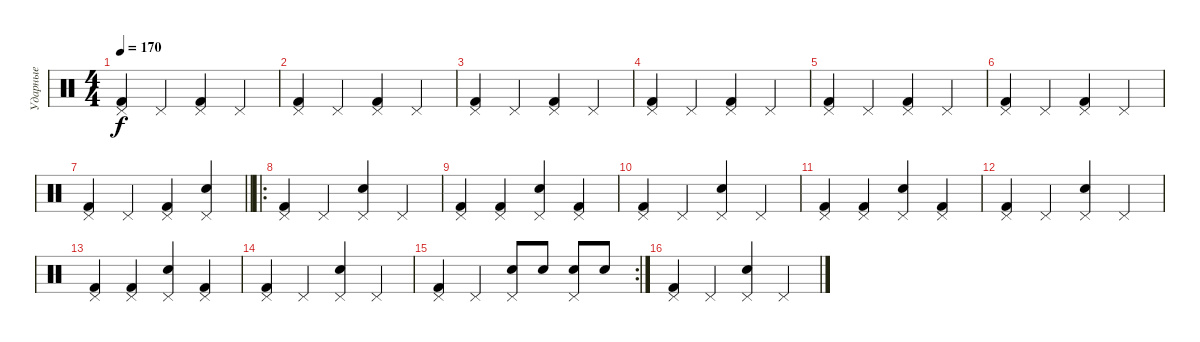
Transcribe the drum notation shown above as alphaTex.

\track ("Ударные" "Ударные") {instrument percussion}
\staff {score}
\articulation defaults
\ts (4 4)
\tempo 170
\clef neutral
\ks c
("Pedal Hi-Hat (hit)" "Kick (hit) 2").4{dy f} "Pedal Hi-Hat (hit)".4 ("Pedal Hi-Hat (hit)" "Kick (hit) 2").4 "Pedal Hi-Hat (hit)".4 |
("Pedal Hi-Hat (hit)" "Kick (hit) 2").4 "Pedal Hi-Hat (hit)".4 ("Pedal Hi-Hat (hit)" "Kick (hit) 2").4 "Pedal Hi-Hat (hit)".4 |
("Pedal Hi-Hat (hit)" "Kick (hit) 2").4 "Pedal Hi-Hat (hit)".4 ("Pedal Hi-Hat (hit)" "Kick (hit) 2").4 "Pedal Hi-Hat (hit)".4 |
("Pedal Hi-Hat (hit)" "Kick (hit) 2").4 "Pedal Hi-Hat (hit)".4 ("Pedal Hi-Hat (hit)" "Kick (hit) 2").4 "Pedal Hi-Hat (hit)".4 |
("Pedal Hi-Hat (hit)" "Kick (hit) 2").4 "Pedal Hi-Hat (hit)".4 ("Pedal Hi-Hat (hit)" "Kick (hit) 2").4 "Pedal Hi-Hat (hit)".4 |
("Pedal Hi-Hat (hit)" "Kick (hit) 2").4 "Pedal Hi-Hat (hit)".4 ("Pedal Hi-Hat (hit)" "Kick (hit) 2").4 "Pedal Hi-Hat (hit)".4 |
\barLineRight lightlight
("Pedal Hi-Hat (hit)" "Kick (hit) 2").4 "Pedal Hi-Hat (hit)".4 ("Pedal Hi-Hat (hit)" "Kick (hit) 2").4 ("Pedal Hi-Hat (hit)" "Snare (hit) 2").4 |
\ro
("Pedal Hi-Hat (hit)" "Kick (hit) 2").4 "Pedal Hi-Hat (hit)".4 ("Pedal Hi-Hat (hit)" "Snare (hit) 2").4 "Pedal Hi-Hat (hit)".4 |
("Pedal Hi-Hat (hit)" "Kick (hit) 2").4 ("Pedal Hi-Hat (hit)" "Kick (hit) 2").4 ("Pedal Hi-Hat (hit)" "Snare (hit) 2").4 ("Pedal Hi-Hat (hit)" "Kick (hit) 2").4 |
("Pedal Hi-Hat (hit)" "Kick (hit) 2").4 "Pedal Hi-Hat (hit)".4 ("Pedal Hi-Hat (hit)" "Snare (hit) 2").4 "Pedal Hi-Hat (hit)".4 |
("Pedal Hi-Hat (hit)" "Kick (hit) 2").4 ("Pedal Hi-Hat (hit)" "Kick (hit) 2").4 ("Pedal Hi-Hat (hit)" "Snare (hit) 2").4 ("Pedal Hi-Hat (hit)" "Kick (hit) 2").4 |
("Pedal Hi-Hat (hit)" "Kick (hit) 2").4 "Pedal Hi-Hat (hit)".4 ("Pedal Hi-Hat (hit)" "Snare (hit) 2").4 "Pedal Hi-Hat (hit)".4 |
("Pedal Hi-Hat (hit)" "Kick (hit) 2").4 ("Pedal Hi-Hat (hit)" "Kick (hit) 2").4 ("Pedal Hi-Hat (hit)" "Snare (hit) 2").4 ("Pedal Hi-Hat (hit)" "Kick (hit) 2").4 |
("Pedal Hi-Hat (hit)" "Kick (hit) 2").4 "Pedal Hi-Hat (hit)".4 ("Pedal Hi-Hat (hit)" "Snare (hit) 2").4 "Pedal Hi-Hat (hit)".4 |
\rc 2
("Pedal Hi-Hat (hit)" "Kick (hit) 2").4 "Pedal Hi-Hat (hit)".4 ("Pedal Hi-Hat (hit)" "Snare (hit) 2").8 "Snare (hit) 2".8 ("Pedal Hi-Hat (hit)" "Snare (hit) 2").8 "Snare (hit) 2".8 |
("Pedal Hi-Hat (hit)" "Kick (hit) 2").4 "Pedal Hi-Hat (hit)".4 ("Pedal Hi-Hat (hit)" "Snare (hit) 2").4 "Pedal Hi-Hat (hit)".4
